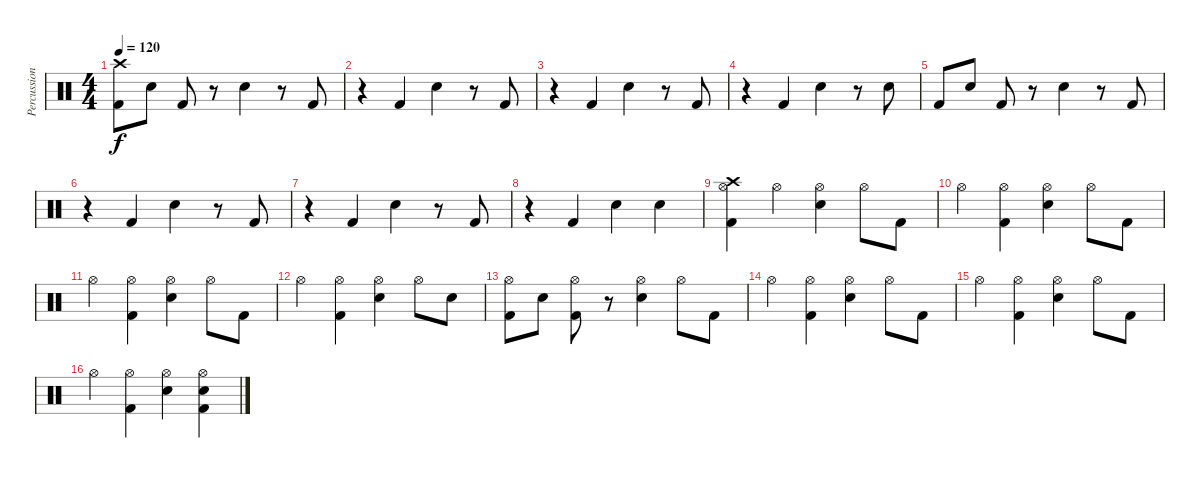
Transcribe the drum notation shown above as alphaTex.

\track ("Percussion" "Percussion") {instrument percussion}
\staff {score}
\articulation defaults
\ts (4 4)
\tempo 120
\clef neutral
\ks c
("Crash high (hit)" "Kick (hit) 2").8{dy f} "Electric Snare (hit)".8 "Kick (hit) 2".8 r.8 "Electric Snare (hit)".4 r.8 "Kick (hit) 2".8 |
r.4 "Kick (hit) 2".4 "Electric Snare (hit)".4 r.8 "Kick (hit) 2".8 |
r.4 "Kick (hit) 2".4 "Electric Snare (hit)".4 r.8 "Kick (hit) 2".8 |
r.4 "Kick (hit) 2".4 "Electric Snare (hit)".4 r.8 "Electric Snare (hit)".8 |
"Kick (hit) 2".8 "Electric Snare (hit)".8 "Kick (hit) 2".8 r.8 "Electric Snare (hit)".4 r.8 "Kick (hit) 2".8 |
r.4 "Kick (hit) 2".4 "Electric Snare (hit)".4 r.8 "Kick (hit) 2".8 |
r.4 "Kick (hit) 2".4 "Electric Snare (hit)".4 r.8 "Kick (hit) 2".8 |
r.4 "Kick (hit) 2".4 "Electric Snare (hit)".4 "Electric Snare (hit)".4 |
("Crash high (hit)" "Hi-Hat (open)" "Kick (hit) 2").4 "Hi-Hat (open)".4 ("Hi-Hat (open)" "Electric Snare (hit)").4 "Hi-Hat (open)".8 "Kick (hit) 2".8 |
"Hi-Hat (open)".4 ("Hi-Hat (open)" "Kick (hit) 2").4 ("Hi-Hat (open)" "Electric Snare (hit)").4 "Hi-Hat (open)".8 "Kick (hit) 2".8 |
"Hi-Hat (open)".4 ("Hi-Hat (open)" "Kick (hit) 2").4 ("Hi-Hat (open)" "Electric Snare (hit)").4 "Hi-Hat (open)".8 "Kick (hit) 2".8 |
"Hi-Hat (open)".4 ("Hi-Hat (open)" "Kick (hit) 2").4 ("Hi-Hat (open)" "Electric Snare (hit)").4 "Hi-Hat (open)".8 "Electric Snare (hit)".8 |
("Hi-Hat (open)" "Kick (hit) 2").8 "Electric Snare (hit)".8 ("Hi-Hat (open)" "Kick (hit) 2").8 r.8 ("Hi-Hat (open)" "Electric Snare (hit)").4 "Hi-Hat (open)".8 "Kick (hit) 2".8 |
"Hi-Hat (open)".4 ("Hi-Hat (open)" "Kick (hit) 2").4 ("Hi-Hat (open)" "Electric Snare (hit)").4 "Hi-Hat (open)".8 "Kick (hit) 2".8 |
"Hi-Hat (open)".4 ("Hi-Hat (open)" "Kick (hit) 2").4 ("Hi-Hat (open)" "Electric Snare (hit)").4 "Hi-Hat (open)".8 "Kick (hit) 2".8 |
"Hi-Hat (open)".4 ("Hi-Hat (open)" "Kick (hit) 2").4 ("Hi-Hat (open)" "Electric Snare (hit)").4 ("Hi-Hat (open)" "Electric Snare (hit)" "Kick (hit) 2").4
